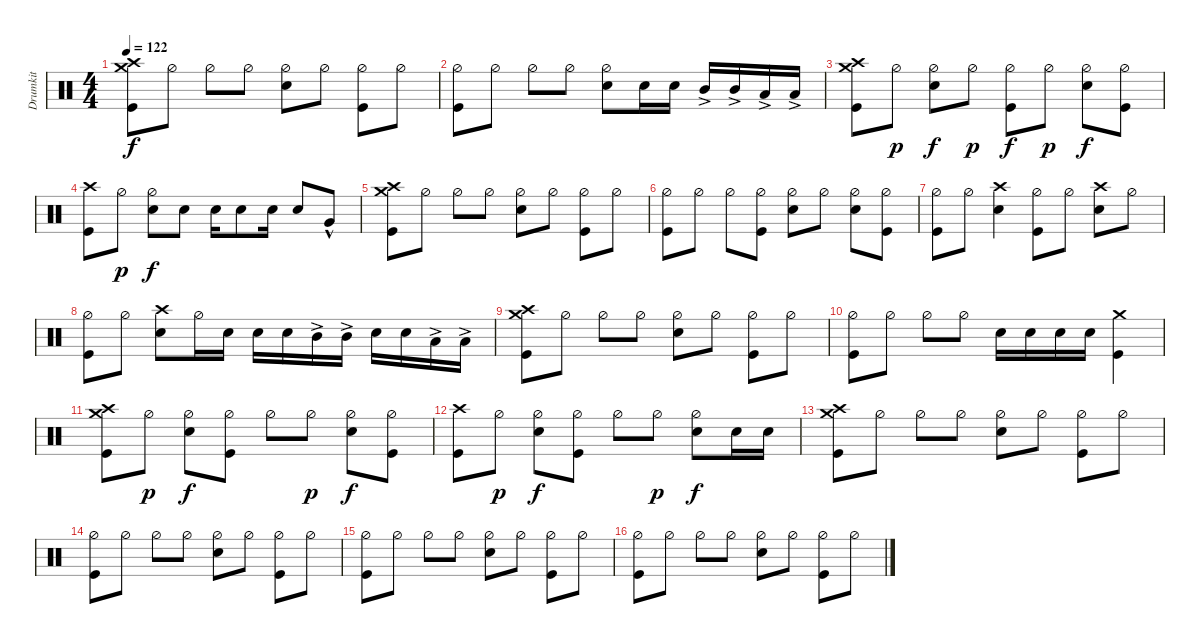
\track ("Drumkit" "Drumkit") {instrument percussion}
\staff {score}
\articulation defaults
\ts (4 4)
\tempo 122
\clef neutral
\ks c
("Kick (hit)" "Crash medium (hit)" "Crash high (hit)").8{dy f} "Hi-Hat (half)".8 "Hi-Hat (half)".8 "Hi-Hat (half)".8 ("Hi-Hat (half)" "Snare (hit) 2").8 "Hi-Hat (half)".8 ("Hi-Hat (half)" "Kick (hit)").8 "Hi-Hat (half)".8 |
("Kick (hit)" "Hi-Hat (half)").8 "Hi-Hat (half)".8 "Hi-Hat (half)".8 "Hi-Hat (half)".8 ("Hi-Hat (half)" "Snare (hit) 2").8 "Snare (hit) 2".16 "Snare (hit) 2".16 "Mid Tom (hit)"{ac}.16 "Mid Tom (hit)"{ac}.16 "Low Tom (hit)"{ac}.16 "Low Tom (hit)"{ac}.16 |
("Kick (hit)" "Crash medium (hit)" "Crash high (hit)").8 "Hi-Hat (half)".8{dy p} ("Hi-Hat (half)" "Snare (hit) 2").8{dy f} "Hi-Hat (half)".8{dy p} ("Hi-Hat (half)" "Kick (hit)").8{dy f} "Hi-Hat (half)".8{dy p} ("Hi-Hat (half)" "Snare (hit) 2").8{dy f} ("Hi-Hat (half)" "Kick (hit)").8 |
("Kick (hit)" "Crash high (hit)").8 "Hi-Hat (half)".8{dy p} ("Hi-Hat (half)" "Snare (hit) 2").8{dy f} "Snare (hit) 2".8 "Snare (hit) 2".16 "Snare (hit) 2".8 "Snare (hit) 2".16 "Snare (hit) 2".8 "Very Low Tom (hit)"{hac}.8 |
("Kick (hit)" "Crash medium (hit)" "Crash high (hit)").8 "Hi-Hat (half)".8 "Hi-Hat (half)".8 "Hi-Hat (half)".8 ("Hi-Hat (half)" "Snare (hit) 2").8 "Hi-Hat (half)".8 ("Hi-Hat (half)" "Kick (hit)").8 "Hi-Hat (half)".8 |
("Kick (hit)" "Hi-Hat (half)").8 "Hi-Hat (half)".8 "Hi-Hat (half)".8 ("Hi-Hat (half)" "Kick (hit)").8 ("Hi-Hat (half)" "Snare (hit) 2").8 "Hi-Hat (half)".8 ("Snare (hit) 2" "Hi-Hat (half)").8 ("Hi-Hat (half)" "Kick (hit)").8 |
("Hi-Hat (half)" "Kick (hit)").8 "Hi-Hat (half)".8 ("Snare (hit) 2" "Crash high (hit)").4 ("Hi-Hat (half)" "Kick (hit)").8 "Hi-Hat (half)".8 ("Snare (hit) 2" "Crash high (hit)").8 "Hi-Hat (half)".8 |
("Hi-Hat (half)" "Kick (hit)").8 "Hi-Hat (half)".8 ("Snare (hit) 2" "Crash high (hit)").8 "Hi-Hat (half)".16 "Snare (hit) 2".16 "Snare (hit) 2".16 "Snare (hit) 2".16 "Mid Tom (hit)"{ac}.16 "Mid Tom (hit)"{ac}.16 "Snare (hit) 2".16 "Snare (hit) 2".16 "Low Tom (hit)"{ac}.16 "Low Tom (hit)"{ac}.16 |
("Kick (hit)" "Crash medium (hit)" "Crash high (hit)").8 "Hi-Hat (half)".8 "Hi-Hat (half)".8 "Hi-Hat (half)".8 ("Hi-Hat (half)" "Snare (hit) 2").8 "Hi-Hat (half)".8 ("Hi-Hat (half)" "Kick (hit)").8 "Hi-Hat (half)".8 |
("Kick (hit)" "Hi-Hat (half)").8 "Hi-Hat (half)".8 "Hi-Hat (half)".8 "Hi-Hat (half)".8 "Snare (hit) 2".16 "Snare (hit) 2".16 "Snare (hit) 2".16 "Snare (hit) 2".16 ("Kick (hit)" "Crash medium (hit)").4 |
("Kick (hit)" "Crash medium (hit)" "Crash high (hit)").8 "Hi-Hat (half)".8{dy p} ("Hi-Hat (half)" "Snare (hit) 2").8{dy f} ("Hi-Hat (half)" "Kick (hit)").8 "Hi-Hat (half)".8 "Hi-Hat (half)".8{dy p} ("Hi-Hat (half)" "Snare (hit) 2").8{dy f} ("Hi-Hat (half)" "Kick (hit)").8 |
("Kick (hit)" "Crash high (hit)").8 "Hi-Hat (half)".8{dy p} ("Hi-Hat (half)" "Snare (hit) 2").8{dy f} ("Hi-Hat (half)" "Kick (hit)").8 "Hi-Hat (half)".8 "Hi-Hat (half)".8{dy p} ("Hi-Hat (half)" "Snare (hit) 2").8{dy f} "Snare (hit) 2".16 "Snare (hit) 2".16 |
("Kick (hit)" "Crash medium (hit)" "Crash high (hit)").8 "Hi-Hat (half)".8 "Hi-Hat (half)".8 "Hi-Hat (half)".8 ("Hi-Hat (half)" "Snare (hit) 2").8 "Hi-Hat (half)".8 ("Hi-Hat (half)" "Kick (hit)").8 "Hi-Hat (half)".8 |
("Kick (hit)" "Hi-Hat (half)").8 "Hi-Hat (half)".8 "Hi-Hat (half)".8 "Hi-Hat (half)".8 ("Hi-Hat (half)" "Snare (hit) 2").8 "Hi-Hat (half)".8 ("Hi-Hat (half)" "Kick (hit)").8 "Hi-Hat (half)".8 |
("Kick (hit)" "Hi-Hat (half)").8 "Hi-Hat (half)".8 "Hi-Hat (half)".8 "Hi-Hat (half)".8 ("Hi-Hat (half)" "Snare (hit) 2").8 "Hi-Hat (half)".8 ("Hi-Hat (half)" "Kick (hit)").8 "Hi-Hat (half)".8 |
("Kick (hit)" "Hi-Hat (half)").8 "Hi-Hat (half)".8 "Hi-Hat (half)".8 "Hi-Hat (half)".8 ("Hi-Hat (half)" "Snare (hit) 2").8 "Hi-Hat (half)".8 ("Hi-Hat (half)" "Kick (hit)").8 "Hi-Hat (half)".8
